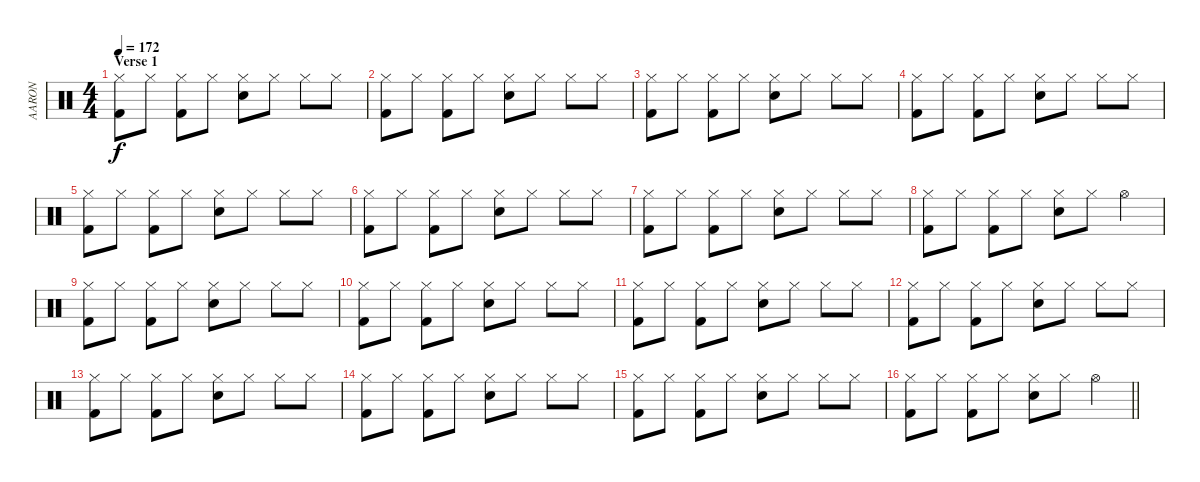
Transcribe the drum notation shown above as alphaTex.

\track ("AARON" "AARON") {instrument percussion}
\staff {score}
\articulation defaults
\ts (4 4)
\section ("" "Verse 1")
\tempo 172
\clef neutral
\ks c
("Hi-Hat (closed)" "Kick (hit) 2").8{dy f} "Hi-Hat (closed)".8 ("Hi-Hat (closed)" "Kick (hit) 2").8 "Hi-Hat (closed)".8 ("Hi-Hat (closed)" "Electric Snare (hit)").8 "Hi-Hat (closed)".8 "Hi-Hat (closed)".8 "Hi-Hat (closed)".8 |
("Hi-Hat (closed)" "Kick (hit) 2").8 "Hi-Hat (closed)".8 ("Hi-Hat (closed)" "Kick (hit) 2").8 "Hi-Hat (closed)".8 ("Hi-Hat (closed)" "Electric Snare (hit)").8 "Hi-Hat (closed)".8 "Hi-Hat (closed)".8 "Hi-Hat (closed)".8 |
("Hi-Hat (closed)" "Kick (hit) 2").8 "Hi-Hat (closed)".8 ("Hi-Hat (closed)" "Kick (hit) 2").8 "Hi-Hat (closed)".8 ("Hi-Hat (closed)" "Electric Snare (hit)").8 "Hi-Hat (closed)".8 "Hi-Hat (closed)".8 "Hi-Hat (closed)".8 |
("Hi-Hat (closed)" "Kick (hit) 2").8 "Hi-Hat (closed)".8 ("Hi-Hat (closed)" "Kick (hit) 2").8 "Hi-Hat (closed)".8 ("Hi-Hat (closed)" "Electric Snare (hit)").8 "Hi-Hat (closed)".8 "Hi-Hat (closed)".8 "Hi-Hat (closed)".8 |
("Hi-Hat (closed)" "Kick (hit) 2").8 "Hi-Hat (closed)".8 ("Hi-Hat (closed)" "Kick (hit) 2").8 "Hi-Hat (closed)".8 ("Hi-Hat (closed)" "Electric Snare (hit)").8 "Hi-Hat (closed)".8 "Hi-Hat (closed)".8 "Hi-Hat (closed)".8 |
("Hi-Hat (closed)" "Kick (hit) 2").8 "Hi-Hat (closed)".8 ("Hi-Hat (closed)" "Kick (hit) 2").8 "Hi-Hat (closed)".8 ("Hi-Hat (closed)" "Electric Snare (hit)").8 "Hi-Hat (closed)".8 "Hi-Hat (closed)".8 "Hi-Hat (closed)".8 |
("Hi-Hat (closed)" "Kick (hit) 2").8 "Hi-Hat (closed)".8 ("Hi-Hat (closed)" "Kick (hit) 2").8 "Hi-Hat (closed)".8 ("Hi-Hat (closed)" "Electric Snare (hit)").8 "Hi-Hat (closed)".8 "Hi-Hat (closed)".8 "Hi-Hat (closed)".8 |
("Hi-Hat (closed)" "Kick (hit) 2").8 "Hi-Hat (closed)".8 ("Hi-Hat (closed)" "Kick (hit) 2").8 "Hi-Hat (closed)".8 ("Hi-Hat (closed)" "Electric Snare (hit)").8 "Hi-Hat (closed)".8 "Hi-Hat (open)".4 |
("Hi-Hat (closed)" "Kick (hit) 2").8 "Hi-Hat (closed)".8 ("Hi-Hat (closed)" "Kick (hit) 2").8 "Hi-Hat (closed)".8 ("Hi-Hat (closed)" "Electric Snare (hit)").8 "Hi-Hat (closed)".8 "Hi-Hat (closed)".8 "Hi-Hat (closed)".8 |
("Hi-Hat (closed)" "Kick (hit) 2").8 "Hi-Hat (closed)".8 ("Hi-Hat (closed)" "Kick (hit) 2").8 "Hi-Hat (closed)".8 ("Hi-Hat (closed)" "Electric Snare (hit)").8 "Hi-Hat (closed)".8 "Hi-Hat (closed)".8 "Hi-Hat (closed)".8 |
("Hi-Hat (closed)" "Kick (hit) 2").8 "Hi-Hat (closed)".8 ("Hi-Hat (closed)" "Kick (hit) 2").8 "Hi-Hat (closed)".8 ("Hi-Hat (closed)" "Electric Snare (hit)").8 "Hi-Hat (closed)".8 "Hi-Hat (closed)".8 "Hi-Hat (closed)".8 |
("Hi-Hat (closed)" "Kick (hit) 2").8 "Hi-Hat (closed)".8 ("Hi-Hat (closed)" "Kick (hit) 2").8 "Hi-Hat (closed)".8 ("Hi-Hat (closed)" "Electric Snare (hit)").8 "Hi-Hat (closed)".8 "Hi-Hat (closed)".8 "Hi-Hat (closed)".8 |
("Hi-Hat (closed)" "Kick (hit) 2").8 "Hi-Hat (closed)".8 ("Hi-Hat (closed)" "Kick (hit) 2").8 "Hi-Hat (closed)".8 ("Hi-Hat (closed)" "Electric Snare (hit)").8 "Hi-Hat (closed)".8 "Hi-Hat (closed)".8 "Hi-Hat (closed)".8 |
("Hi-Hat (closed)" "Kick (hit) 2").8 "Hi-Hat (closed)".8 ("Hi-Hat (closed)" "Kick (hit) 2").8 "Hi-Hat (closed)".8 ("Hi-Hat (closed)" "Electric Snare (hit)").8 "Hi-Hat (closed)".8 "Hi-Hat (closed)".8 "Hi-Hat (closed)".8 |
("Hi-Hat (closed)" "Kick (hit) 2").8 "Hi-Hat (closed)".8 ("Hi-Hat (closed)" "Kick (hit) 2").8 "Hi-Hat (closed)".8 ("Hi-Hat (closed)" "Electric Snare (hit)").8 "Hi-Hat (closed)".8 "Hi-Hat (closed)".8 "Hi-Hat (closed)".8 |
\barLineRight lightlight
("Hi-Hat (closed)" "Kick (hit) 2").8 "Hi-Hat (closed)".8 ("Hi-Hat (closed)" "Kick (hit) 2").8 "Hi-Hat (closed)".8 ("Hi-Hat (closed)" "Electric Snare (hit)").8 "Hi-Hat (closed)".8 "Hi-Hat (open)".4
